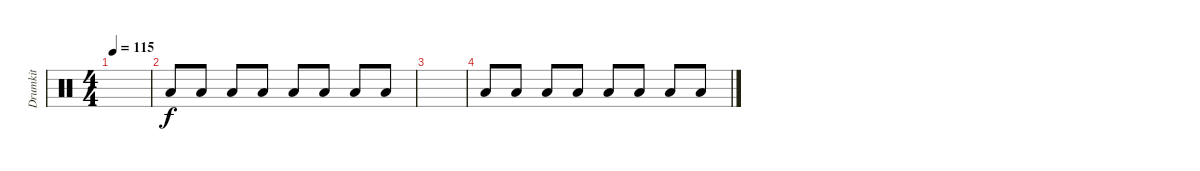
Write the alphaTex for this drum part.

\track ("Drumkit" "Drumkit") {instrument percussion}
\staff {score}
\articulation defaults
\ts (4 4)
\tempo 115
\clef neutral
\ks c
|
"Low Floor Tom (hit)".8 "Low Floor Tom (hit)".8 "Low Floor Tom (hit)".8 "Low Floor Tom (hit)".8 "Low Floor Tom (hit)".8 "Low Floor Tom (hit)".8 "Low Floor Tom (hit)".8 "Low Floor Tom (hit)".8 |
|
"Low Floor Tom (hit)".8 "Low Floor Tom (hit)".8 "Low Floor Tom (hit)".8 "Low Floor Tom (hit)".8 "Low Floor Tom (hit)".8 "Low Floor Tom (hit)".8 "Low Floor Tom (hit)".8 "Low Floor Tom (hit)".8
